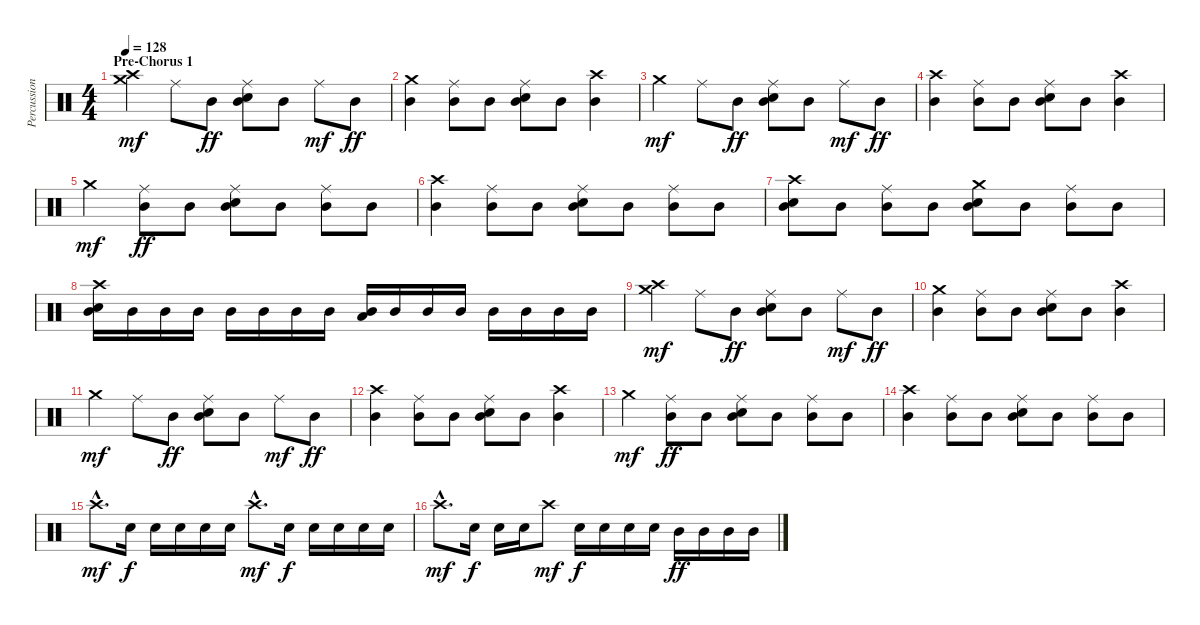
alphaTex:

\track ("Percussion" "Percussion") {instrument percussion}
\staff {score}
\articulation defaults
\ts (4 4)
\section ("" "Pre-Chorus 1")
\tempo 128
\clef neutral
\ks c
("Crash medium (hit)" "Crash high (hit)").4{dy mf} "Ride (middle)".8 "Mid Tom (hit)".8{dy ff} ("Ride (middle)" "Electric Snare (hit)" "Mid Tom (hit)").8 "Mid Tom (hit)".8 "Ride (middle)".8{dy mf} "Mid Tom (hit)".8{dy ff} |
("Crash medium (hit)" "Mid Tom (hit)").4 ("Ride (middle)" "Mid Tom (hit)").8 "Mid Tom (hit)".8 ("Ride (middle)" "Electric Snare (hit)" "Mid Tom (hit)").8 "Mid Tom (hit)".8 ("Crash high (hit)" "Mid Tom (hit)").4 |
"Crash medium (hit)".4{dy mf} "Ride (middle)".8 "Mid Tom (hit)".8{dy ff} ("Ride (middle)" "Electric Snare (hit)" "Mid Tom (hit)").8 "Mid Tom (hit)".8 "Ride (middle)".8{dy mf} "Mid Tom (hit)".8{dy ff} |
("Crash high (hit)" "Mid Tom (hit)").4 ("Ride (middle)" "Mid Tom (hit)").8 "Mid Tom (hit)".8 ("Ride (middle)" "Electric Snare (hit)" "Mid Tom (hit)").8 "Mid Tom (hit)".8 ("Crash high (hit)" "Mid Tom (hit)").4 |
"Crash medium (hit)".4{dy mf} ("Ride (middle)" "Mid Tom (hit)").8{dy ff} "Mid Tom (hit)".8 ("Ride (middle)" "Electric Snare (hit)" "Mid Tom (hit)").8 "Mid Tom (hit)".8 ("Ride (middle)" "Mid Tom (hit)").8 "Mid Tom (hit)".8 |
("Crash high (hit)" "Mid Tom (hit)").4 ("Ride (middle)" "Mid Tom (hit)").8 "Mid Tom (hit)".8 ("Ride (middle)" "Electric Snare (hit)" "Mid Tom (hit)").8 "Mid Tom (hit)".8 ("Ride (middle)" "Mid Tom (hit)").8 "Mid Tom (hit)".8 |
("Crash high (hit)" "Electric Snare (hit)" "Mid Tom (hit)").8 "Mid Tom (hit)".8 ("Ride (middle)" "Mid Tom (hit)").8 "Mid Tom (hit)".8 ("Crash medium (hit)" "Electric Snare (hit)" "Mid Tom (hit)").8 "Mid Tom (hit)".8 ("Ride (middle)" "Mid Tom (hit)").8 "Mid Tom (hit)".8 |
("Crash high (hit)" "Electric Snare (hit)" "Mid Tom (hit)").16 "Mid Tom (hit)".16 "Mid Tom (hit)".16 "Mid Tom (hit)".16 "Mid Tom (hit)".16 "Mid Tom (hit)".16 "Mid Tom (hit)".16 "Mid Tom (hit)".16 ("Low Floor Tom (hit)" "Mid Tom (hit)").16 "Mid Tom (hit)".16 "Mid Tom (hit)".16 "Mid Tom (hit)".16 "Mid Tom (hit)".16 "Mid Tom (hit)".16 "Mid Tom (hit)".16 "Mid Tom (hit)".16 |
("Crash high (hit)" "Crash medium (hit)").4{dy mf} "Ride (middle)".8 "Mid Tom (hit)".8{dy ff} ("Ride (middle)" "Electric Snare (hit)" "Mid Tom (hit)").8 "Mid Tom (hit)".8 "Ride (middle)".8{dy mf} "Mid Tom (hit)".8{dy ff} |
("Crash medium (hit)" "Mid Tom (hit)").4 ("Ride (middle)" "Mid Tom (hit)").8 "Mid Tom (hit)".8 ("Ride (middle)" "Electric Snare (hit)" "Mid Tom (hit)").8 "Mid Tom (hit)".8 ("Crash high (hit)" "Mid Tom (hit)").4 |
"Crash medium (hit)".4{dy mf} "Ride (middle)".8 "Mid Tom (hit)".8{dy ff} ("Ride (middle)" "Electric Snare (hit)" "Mid Tom (hit)").8 "Mid Tom (hit)".8 "Ride (middle)".8{dy mf} "Mid Tom (hit)".8{dy ff} |
("Crash high (hit)" "Mid Tom (hit)").4 ("Ride (middle)" "Mid Tom (hit)").8 "Mid Tom (hit)".8 ("Ride (middle)" "Electric Snare (hit)" "Mid Tom (hit)").8 "Mid Tom (hit)".8 ("Crash high (hit)" "Mid Tom (hit)").4 |
"Crash medium (hit)".4{dy mf} ("Ride (middle)" "Mid Tom (hit)").8{dy ff} "Mid Tom (hit)".8 ("Ride (middle)" "Electric Snare (hit)" "Mid Tom (hit)").8 "Mid Tom (hit)".8 ("Ride (middle)" "Mid Tom (hit)").8 "Mid Tom (hit)".8 |
("Crash high (hit)" "Mid Tom (hit)").4 ("Ride (middle)" "Mid Tom (hit)").8 "Mid Tom (hit)".8 ("Ride (middle)" "Electric Snare (hit)" "Mid Tom (hit)").8 "Mid Tom (hit)".8 ("Ride (middle)" "Mid Tom (hit)").8 "Mid Tom (hit)".8 |
"Crash high (hit)"{hac}.8{d dy mf} "Snare (hit) 2".16{dy f} "Snare (hit) 2".16 "Snare (hit) 2".16 "Snare (hit) 2".16 "Snare (hit) 2".16 "Crash high (hit)"{hac}.8{d dy mf} "Snare (hit) 2".16{dy f} "Snare (hit) 2".16 "Snare (hit) 2".16 "Snare (hit) 2".16 "Snare (hit) 2".16 |
"Crash high (hit)"{hac}.8{d dy mf} "Snare (hit) 2".16{dy f} "Snare (hit) 2".16 "Snare (hit) 2".16 "Crash high (hit)".8{dy mf} "Snare (hit) 2".16{dy f} "Snare (hit) 2".16 "Snare (hit) 2".16 "Snare (hit) 2".16 "Mid Tom (hit)".16{dy ff} "Mid Tom (hit)".16 "Mid Tom (hit)".16 "Mid Tom (hit)".16
